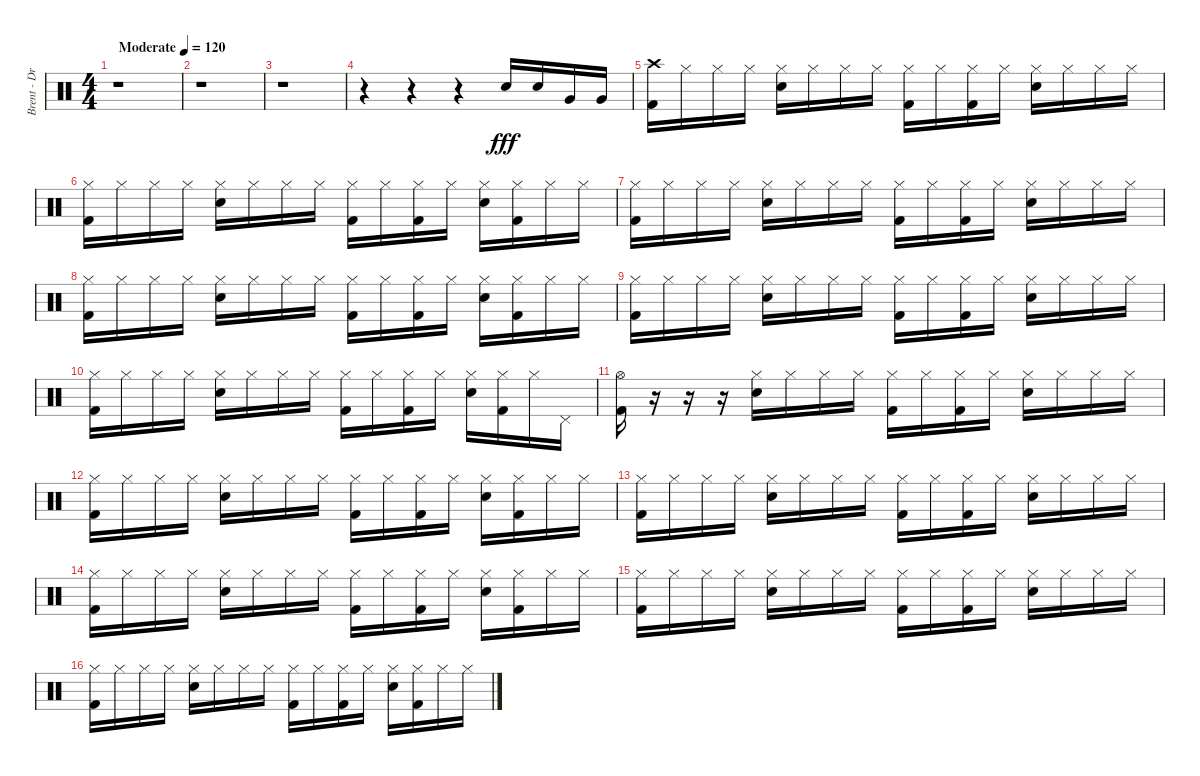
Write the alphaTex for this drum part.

\track ("Brent - Drums" "Brent - Dr") {instrument percussion}
\staff {score}
\articulation defaults
\ts (4 4)
\tempo (120 "Moderate")
\clef neutral
\ks c
r.1{dy fff} |
r.1 |
r.1 |
r.4 r.4 r.4 "Snare (hit) 2".16 "Snare (hit) 2".16 "Very Low Tom (hit)".16 "Very Low Tom (hit)".16 |
("Crash high (hit)" "Kick (hit) 2").16 "Hi-Hat (closed)".16 "Hi-Hat (closed)".16 "Hi-Hat (closed)".16 ("Hi-Hat (closed)" "Snare (hit) 2").16 "Hi-Hat (closed)".16 "Hi-Hat (closed)".16 "Hi-Hat (closed)".16 ("Hi-Hat (closed)" "Kick (hit) 2").16 "Hi-Hat (closed)".16 ("Hi-Hat (closed)" "Kick (hit) 2").16 "Hi-Hat (closed)".16 ("Hi-Hat (closed)" "Snare (hit) 2").16 "Hi-Hat (closed)".16 "Hi-Hat (closed)".16 "Hi-Hat (closed)".16 |
("Hi-Hat (closed)" "Kick (hit) 2").16 "Hi-Hat (closed)".16 "Hi-Hat (closed)".16 "Hi-Hat (closed)".16 ("Hi-Hat (closed)" "Snare (hit) 2").16 "Hi-Hat (closed)".16 "Hi-Hat (closed)".16 "Hi-Hat (closed)".16 ("Hi-Hat (closed)" "Kick (hit) 2").16 "Hi-Hat (closed)".16 ("Hi-Hat (closed)" "Kick (hit) 2").16 "Hi-Hat (closed)".16 ("Hi-Hat (closed)" "Snare (hit) 2").16 ("Hi-Hat (closed)" "Kick (hit) 2").16 "Hi-Hat (closed)".16 "Hi-Hat (closed)".16 |
("Hi-Hat (closed)" "Kick (hit) 2").16 "Hi-Hat (closed)".16 "Hi-Hat (closed)".16 "Hi-Hat (closed)".16 ("Hi-Hat (closed)" "Snare (hit) 2").16 "Hi-Hat (closed)".16 "Hi-Hat (closed)".16 "Hi-Hat (closed)".16 ("Hi-Hat (closed)" "Kick (hit) 2").16 "Hi-Hat (closed)".16 ("Hi-Hat (closed)" "Kick (hit) 2").16 "Hi-Hat (closed)".16 ("Hi-Hat (closed)" "Snare (hit) 2").16 "Hi-Hat (closed)".16 "Hi-Hat (closed)".16 "Hi-Hat (closed)".16 |
("Hi-Hat (closed)" "Kick (hit) 2").16 "Hi-Hat (closed)".16 "Hi-Hat (closed)".16 "Hi-Hat (closed)".16 ("Hi-Hat (closed)" "Snare (hit) 2").16 "Hi-Hat (closed)".16 "Hi-Hat (closed)".16 "Hi-Hat (closed)".16 ("Hi-Hat (closed)" "Kick (hit) 2").16 "Hi-Hat (closed)".16 ("Hi-Hat (closed)" "Kick (hit) 2").16 "Hi-Hat (closed)".16 ("Hi-Hat (closed)" "Snare (hit) 2").16 ("Hi-Hat (closed)" "Kick (hit) 2").16 "Hi-Hat (closed)".16 "Hi-Hat (closed)".16 |
("Hi-Hat (closed)" "Kick (hit) 2").16 "Hi-Hat (closed)".16 "Hi-Hat (closed)".16 "Hi-Hat (closed)".16 ("Hi-Hat (closed)" "Snare (hit) 2").16 "Hi-Hat (closed)".16 "Hi-Hat (closed)".16 "Hi-Hat (closed)".16 ("Hi-Hat (closed)" "Kick (hit) 2").16 "Hi-Hat (closed)".16 ("Hi-Hat (closed)" "Kick (hit) 2").16 "Hi-Hat (closed)".16 ("Hi-Hat (closed)" "Snare (hit) 2").16 "Hi-Hat (closed)".16 "Hi-Hat (closed)".16 "Hi-Hat (closed)".16 |
("Hi-Hat (closed)" "Kick (hit) 2").16 "Hi-Hat (closed)".16 "Hi-Hat (closed)".16 "Hi-Hat (closed)".16 ("Hi-Hat (closed)" "Snare (hit) 2").16 "Hi-Hat (closed)".16 "Hi-Hat (closed)".16 "Hi-Hat (closed)".16 ("Hi-Hat (closed)" "Kick (hit) 2").16 "Hi-Hat (closed)".16 ("Hi-Hat (closed)" "Kick (hit) 2").16 "Hi-Hat (closed)".16 ("Hi-Hat (closed)" "Snare (hit) 2").16 ("Hi-Hat (closed)" "Kick (hit) 2").16 "Hi-Hat (closed)".16 "Pedal Hi-Hat (hit)".16 |
("Hi-Hat (open)" "Kick (hit) 2").16 r.16 r.16 r.16 ("Hi-Hat (closed)" "Snare (hit) 2").16 "Hi-Hat (closed)".16 "Hi-Hat (closed)".16 "Hi-Hat (closed)".16 ("Hi-Hat (closed)" "Kick (hit) 2").16 "Hi-Hat (closed)".16 ("Hi-Hat (closed)" "Kick (hit) 2").16 "Hi-Hat (closed)".16 ("Hi-Hat (closed)" "Snare (hit) 2").16 "Hi-Hat (closed)".16 "Hi-Hat (closed)".16 "Hi-Hat (closed)".16 |
("Hi-Hat (closed)" "Kick (hit) 2").16 "Hi-Hat (closed)".16 "Hi-Hat (closed)".16 "Hi-Hat (closed)".16 ("Hi-Hat (closed)" "Snare (hit) 2").16 "Hi-Hat (closed)".16 "Hi-Hat (closed)".16 "Hi-Hat (closed)".16 ("Hi-Hat (closed)" "Kick (hit) 2").16 "Hi-Hat (closed)".16 ("Hi-Hat (closed)" "Kick (hit) 2").16 "Hi-Hat (closed)".16 ("Hi-Hat (closed)" "Snare (hit) 2").16 ("Hi-Hat (closed)" "Kick (hit) 2").16 "Hi-Hat (closed)".16 "Hi-Hat (closed)".16 |
("Hi-Hat (closed)" "Kick (hit) 2").16 "Hi-Hat (closed)".16 "Hi-Hat (closed)".16 "Hi-Hat (closed)".16 ("Hi-Hat (closed)" "Snare (hit) 2").16 "Hi-Hat (closed)".16 "Hi-Hat (closed)".16 "Hi-Hat (closed)".16 ("Hi-Hat (closed)" "Kick (hit) 2").16 "Hi-Hat (closed)".16 ("Hi-Hat (closed)" "Kick (hit) 2").16 "Hi-Hat (closed)".16 ("Hi-Hat (closed)" "Snare (hit) 2").16 "Hi-Hat (closed)".16 "Hi-Hat (closed)".16 "Hi-Hat (closed)".16 |
("Hi-Hat (closed)" "Kick (hit) 2").16 "Hi-Hat (closed)".16 "Hi-Hat (closed)".16 "Hi-Hat (closed)".16 ("Hi-Hat (closed)" "Snare (hit) 2").16 "Hi-Hat (closed)".16 "Hi-Hat (closed)".16 "Hi-Hat (closed)".16 ("Hi-Hat (closed)" "Kick (hit) 2").16 "Hi-Hat (closed)".16 ("Hi-Hat (closed)" "Kick (hit) 2").16 "Hi-Hat (closed)".16 ("Hi-Hat (closed)" "Snare (hit) 2").16 ("Hi-Hat (closed)" "Kick (hit) 2").16 "Hi-Hat (closed)".16 "Hi-Hat (closed)".16 |
("Hi-Hat (closed)" "Kick (hit) 2").16 "Hi-Hat (closed)".16 "Hi-Hat (closed)".16 "Hi-Hat (closed)".16 ("Hi-Hat (closed)" "Snare (hit) 2").16 "Hi-Hat (closed)".16 "Hi-Hat (closed)".16 "Hi-Hat (closed)".16 ("Hi-Hat (closed)" "Kick (hit) 2").16 "Hi-Hat (closed)".16 ("Hi-Hat (closed)" "Kick (hit) 2").16 "Hi-Hat (closed)".16 ("Hi-Hat (closed)" "Snare (hit) 2").16 "Hi-Hat (closed)".16 "Hi-Hat (closed)".16 "Hi-Hat (closed)".16 |
("Hi-Hat (closed)" "Kick (hit) 2").16 "Hi-Hat (closed)".16 "Hi-Hat (closed)".16 "Hi-Hat (closed)".16 ("Hi-Hat (closed)" "Snare (hit) 2").16 "Hi-Hat (closed)".16 "Hi-Hat (closed)".16 "Hi-Hat (closed)".16 ("Hi-Hat (closed)" "Kick (hit) 2").16 "Hi-Hat (closed)".16 ("Hi-Hat (closed)" "Kick (hit) 2").16 "Hi-Hat (closed)".16 ("Hi-Hat (closed)" "Snare (hit) 2").16 ("Hi-Hat (closed)" "Kick (hit) 2").16 "Hi-Hat (closed)".16 "Hi-Hat (closed)".16
